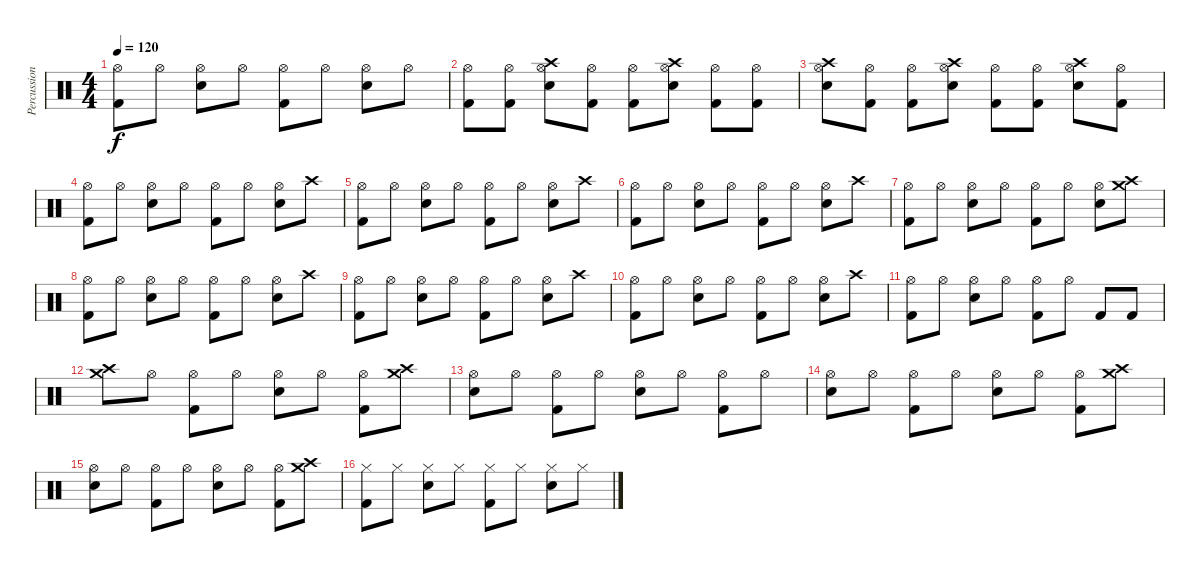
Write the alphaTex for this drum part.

\track ("Percussion" "Percussion") {instrument percussion}
\staff {score}
\articulation defaults
\ts (4 4)
\tempo 120
\clef neutral
\ks c
("Hi-Hat (open)" "Kick (hit) 2").8{dy f} "Hi-Hat (open)".8 ("Hi-Hat (open)" "Electric Snare (hit)").8 "Hi-Hat (open)".8 ("Hi-Hat (open)" "Kick (hit) 2").8 "Hi-Hat (open)".8 ("Hi-Hat (open)" "Electric Snare (hit)").8 "Hi-Hat (open)".8 |
("Hi-Hat (open)" "Kick (hit) 2").8 ("Hi-Hat (open)" "Kick (hit) 2").8 ("Hi-Hat (open)" "Electric Snare (hit)" "Crash high (hit)").8 ("Hi-Hat (open)" "Kick (hit) 2").8 ("Hi-Hat (open)" "Kick (hit) 2").8 ("Hi-Hat (open)" "Electric Snare (hit)" "Crash high (hit)").8 ("Hi-Hat (open)" "Kick (hit) 2").8 ("Hi-Hat (open)" "Kick (hit) 2").8 |
("Hi-Hat (open)" "Electric Snare (hit)" "Crash high (hit)").8 ("Hi-Hat (open)" "Kick (hit) 2").8 ("Hi-Hat (open)" "Kick (hit) 2").8 ("Hi-Hat (open)" "Electric Snare (hit)" "Crash high (hit)").8 ("Hi-Hat (open)" "Kick (hit) 2").8 ("Hi-Hat (open)" "Kick (hit) 2").8 ("Hi-Hat (open)" "Electric Snare (hit)" "Crash high (hit)").8 ("Hi-Hat (open)" "Kick (hit) 2").8 |
("Hi-Hat (open)" "Kick (hit) 2").8 "Hi-Hat (open)".8 ("Hi-Hat (open)" "Electric Snare (hit)").8 "Hi-Hat (open)".8 ("Hi-Hat (open)" "Kick (hit) 2").8 "Hi-Hat (open)".8 ("Hi-Hat (open)" "Electric Snare (hit)").8 "Crash high (hit)".8 |
("Hi-Hat (open)" "Kick (hit) 2").8 "Hi-Hat (open)".8 ("Hi-Hat (open)" "Electric Snare (hit)").8 "Hi-Hat (open)".8 ("Hi-Hat (open)" "Kick (hit) 2").8 "Hi-Hat (open)".8 ("Hi-Hat (open)" "Electric Snare (hit)").8 "Crash high (hit)".8 |
("Hi-Hat (open)" "Kick (hit) 2").8 "Hi-Hat (open)".8 ("Hi-Hat (open)" "Electric Snare (hit)").8 "Hi-Hat (open)".8 ("Hi-Hat (open)" "Kick (hit) 2").8 "Hi-Hat (open)".8 ("Hi-Hat (open)" "Electric Snare (hit)").8 "Crash high (hit)".8 |
("Hi-Hat (open)" "Kick (hit) 2").8 "Hi-Hat (open)".8 ("Hi-Hat (open)" "Electric Snare (hit)").8 "Hi-Hat (open)".8 ("Hi-Hat (open)" "Kick (hit) 2").8 "Hi-Hat (open)".8 ("Hi-Hat (open)" "Electric Snare (hit)").8 ("Crash high (hit)" "Crash medium (hit)").8 |
("Hi-Hat (open)" "Kick (hit) 2").8 "Hi-Hat (open)".8 ("Hi-Hat (open)" "Electric Snare (hit)").8 "Hi-Hat (open)".8 ("Hi-Hat (open)" "Kick (hit) 2").8 "Hi-Hat (open)".8 ("Hi-Hat (open)" "Electric Snare (hit)").8 "Crash high (hit)".8 |
("Hi-Hat (open)" "Kick (hit) 2").8 "Hi-Hat (open)".8 ("Hi-Hat (open)" "Electric Snare (hit)").8 "Hi-Hat (open)".8 ("Hi-Hat (open)" "Kick (hit) 2").8 "Hi-Hat (open)".8 ("Hi-Hat (open)" "Electric Snare (hit)").8 "Crash high (hit)".8 |
("Hi-Hat (open)" "Kick (hit) 2").8 "Hi-Hat (open)".8 ("Hi-Hat (open)" "Electric Snare (hit)").8 "Hi-Hat (open)".8 ("Hi-Hat (open)" "Kick (hit) 2").8 "Hi-Hat (open)".8 ("Hi-Hat (open)" "Electric Snare (hit)").8 "Crash high (hit)".8 |
("Hi-Hat (open)" "Kick (hit) 2").8 "Hi-Hat (open)".8 ("Hi-Hat (open)" "Electric Snare (hit)").8 "Hi-Hat (open)".8 ("Hi-Hat (open)" "Kick (hit) 2").8 "Hi-Hat (open)".8 "Kick (hit) 2".8 "Kick (hit) 2".8 |
("Crash high (hit)" "Crash medium (hit)").8 "Hi-Hat (open)".8 ("Hi-Hat (open)" "Kick (hit) 2").8 "Hi-Hat (open)".8 ("Hi-Hat (open)" "Electric Snare (hit)").8 "Hi-Hat (open)".8 ("Hi-Hat (open)" "Kick (hit) 2").8 ("Crash high (hit)" "Crash medium (hit)").8 |
("Hi-Hat (open)" "Electric Snare (hit)").8 "Hi-Hat (open)".8 ("Hi-Hat (open)" "Kick (hit) 2").8 "Hi-Hat (open)".8 ("Hi-Hat (open)" "Electric Snare (hit)").8 "Hi-Hat (open)".8 ("Hi-Hat (open)" "Kick (hit) 2").8 "Hi-Hat (open)".8 |
("Hi-Hat (open)" "Electric Snare (hit)").8 "Hi-Hat (open)".8 ("Hi-Hat (open)" "Kick (hit) 2").8 "Hi-Hat (open)".8 ("Hi-Hat (open)" "Electric Snare (hit)").8 "Hi-Hat (open)".8 ("Hi-Hat (open)" "Kick (hit) 2").8 ("Crash high (hit)" "Crash medium (hit)").8 |
("Hi-Hat (open)" "Electric Snare (hit)").8 "Hi-Hat (open)".8 ("Hi-Hat (open)" "Kick (hit) 2").8 "Hi-Hat (open)".8 ("Hi-Hat (open)" "Electric Snare (hit)").8 "Hi-Hat (open)".8 ("Hi-Hat (open)" "Kick (hit) 2").8 ("Crash high (hit)" "Crash medium (hit)").8 |
("Hi-Hat (closed)" "Kick (hit) 2").8 "Hi-Hat (closed)".8 ("Hi-Hat (closed)" "Electric Snare (hit)").8 "Hi-Hat (closed)".8 ("Hi-Hat (closed)" "Kick (hit) 2").8 "Hi-Hat (closed)".8 ("Hi-Hat (closed)" "Electric Snare (hit)").8 "Hi-Hat (closed)".8
